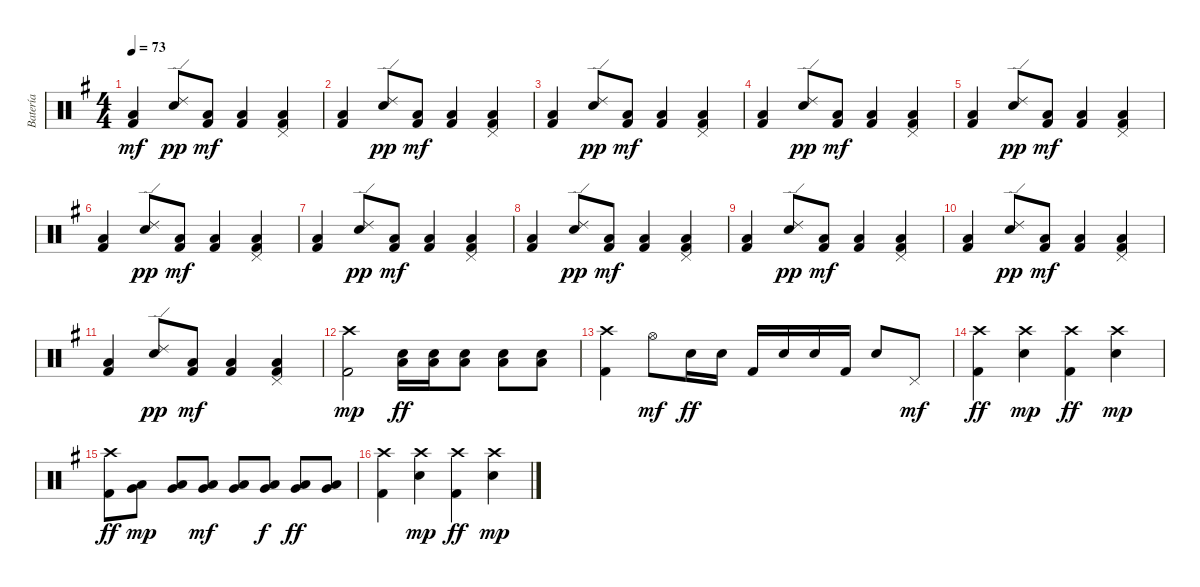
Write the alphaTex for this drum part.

\track ("Batería" "Batería") {instrument percussion}
\staff {score}
\articulation defaults
\ts (4 4)
\tempo 73
\clef neutral
\ks eminor
("Low Floor Tom (hit)" "Kick (hit) 2").4{dy mf} ("Electric Snare (hit)" "Ride (edge) 2").8{dy pp} ("Low Floor Tom (hit)" "Kick (hit) 2").8{dy mf} ("Low Floor Tom (hit)" "Kick (hit) 2").4 ("Pedal Hi-Hat (hit)" "Low Floor Tom (hit)" "Kick (hit) 2").4 |
("Low Floor Tom (hit)" "Kick (hit) 2").4 ("Electric Snare (hit)" "Ride (edge) 2").8{dy pp} ("Low Floor Tom (hit)" "Kick (hit) 2").8{dy mf} ("Low Floor Tom (hit)" "Kick (hit) 2").4 ("Pedal Hi-Hat (hit)" "Low Floor Tom (hit)" "Kick (hit) 2").4 |
("Low Floor Tom (hit)" "Kick (hit) 2").4 ("Electric Snare (hit)" "Ride (edge) 2").8{dy pp} ("Low Floor Tom (hit)" "Kick (hit) 2").8{dy mf} ("Low Floor Tom (hit)" "Kick (hit) 2").4 ("Pedal Hi-Hat (hit)" "Low Floor Tom (hit)" "Kick (hit) 2").4 |
("Low Floor Tom (hit)" "Kick (hit) 2").4 ("Electric Snare (hit)" "Ride (edge) 2").8{dy pp} ("Low Floor Tom (hit)" "Kick (hit) 2").8{dy mf} ("Low Floor Tom (hit)" "Kick (hit) 2").4 ("Pedal Hi-Hat (hit)" "Low Floor Tom (hit)" "Kick (hit) 2").4 |
("Low Floor Tom (hit)" "Kick (hit) 2").4 ("Electric Snare (hit)" "Ride (edge) 2").8{dy pp} ("Low Floor Tom (hit)" "Kick (hit) 2").8{dy mf} ("Low Floor Tom (hit)" "Kick (hit) 2").4 ("Pedal Hi-Hat (hit)" "Low Floor Tom (hit)" "Kick (hit) 2").4 |
("Low Floor Tom (hit)" "Kick (hit) 2").4 ("Electric Snare (hit)" "Ride (edge) 2").8{dy pp} ("Low Floor Tom (hit)" "Kick (hit) 2").8{dy mf} ("Low Floor Tom (hit)" "Kick (hit) 2").4 ("Pedal Hi-Hat (hit)" "Low Floor Tom (hit)" "Kick (hit) 2").4 |
("Low Floor Tom (hit)" "Kick (hit) 2").4 ("Electric Snare (hit)" "Ride (edge) 2").8{dy pp} ("Low Floor Tom (hit)" "Kick (hit) 2").8{dy mf} ("Low Floor Tom (hit)" "Kick (hit) 2").4 ("Pedal Hi-Hat (hit)" "Low Floor Tom (hit)" "Kick (hit) 2").4 |
("Low Floor Tom (hit)" "Kick (hit) 2").4 ("Electric Snare (hit)" "Ride (edge) 2").8{dy pp} ("Low Floor Tom (hit)" "Kick (hit) 2").8{dy mf} ("Low Floor Tom (hit)" "Kick (hit) 2").4 ("Pedal Hi-Hat (hit)" "Low Floor Tom (hit)" "Kick (hit) 2").4 |
("Low Floor Tom (hit)" "Kick (hit) 2").4 ("Electric Snare (hit)" "Ride (edge) 2").8{dy pp} ("Low Floor Tom (hit)" "Kick (hit) 2").8{dy mf} ("Low Floor Tom (hit)" "Kick (hit) 2").4 ("Pedal Hi-Hat (hit)" "Low Floor Tom (hit)" "Kick (hit) 2").4 |
("Low Floor Tom (hit)" "Kick (hit) 2").4 ("Electric Snare (hit)" "Ride (edge) 2").8{dy pp} ("Low Floor Tom (hit)" "Kick (hit) 2").8{dy mf} ("Low Floor Tom (hit)" "Kick (hit) 2").4 ("Pedal Hi-Hat (hit)" "Low Floor Tom (hit)" "Kick (hit) 2").4 |
("Low Floor Tom (hit)" "Kick (hit) 2").4 ("Electric Snare (hit)" "Ride (edge) 2").8{dy pp} ("Low Floor Tom (hit)" "Kick (hit) 2").8{dy mf} ("Low Floor Tom (hit)" "Kick (hit) 2").4 ("Pedal Hi-Hat (hit)" "Low Floor Tom (hit)" "Kick (hit) 2").4 |
("Crash high (hit)" "Kick (hit) 2").2{dy mp} ("Electric Snare (hit)" "Low Floor Tom (hit)").16{dy ff} ("Electric Snare (hit)" "Low Floor Tom (hit)").16 ("Electric Snare (hit)" "Low Floor Tom (hit)").8 ("Electric Snare (hit)" "Low Floor Tom (hit)").8 ("Electric Snare (hit)" "Low Floor Tom (hit)").8 |
("Crash high (hit)" "Kick (hit) 2").4 "Hi-Hat (open)".8{dy mf} "Electric Snare (hit)".16{dy ff} "Electric Snare (hit)".16 "Kick (hit) 2".16 "Electric Snare (hit)".16 "Electric Snare (hit)".16 "Kick (hit) 2".16 "Electric Snare (hit)".8 "Pedal Hi-Hat (hit)".8{dy mf} |
("Crash high (hit)" "Kick (hit) 2").4{dy ff} ("Electric Snare (hit)" "Crash high (hit)").4{dy mp} ("Crash high (hit)" "Kick (hit) 2").4{dy ff} ("Electric Snare (hit)" "Crash high (hit)").4{dy mp} |
("Crash high (hit)" "Kick (hit) 2").8{dy ff} ("Very Low Tom (hit)" "Low Floor Tom (hit)").8{dy mp} ("Very Low Tom (hit)" "Low Floor Tom (hit)").8 ("Very Low Tom (hit)" "Low Floor Tom (hit)").8{dy mf} ("Very Low Tom (hit)" "Low Floor Tom (hit)").8 ("Very Low Tom (hit)" "Low Floor Tom (hit)").8{dy f} ("Very Low Tom (hit)" "Low Floor Tom (hit)").8{dy ff} ("Very Low Tom (hit)" "Low Floor Tom (hit)").8 |
("Crash high (hit)" "Kick (hit) 2").4 ("Electric Snare (hit)" "Crash high (hit)").4{dy mp} ("Crash high (hit)" "Kick (hit) 2").4{dy ff} ("Electric Snare (hit)" "Crash high (hit)").4{dy mp}
